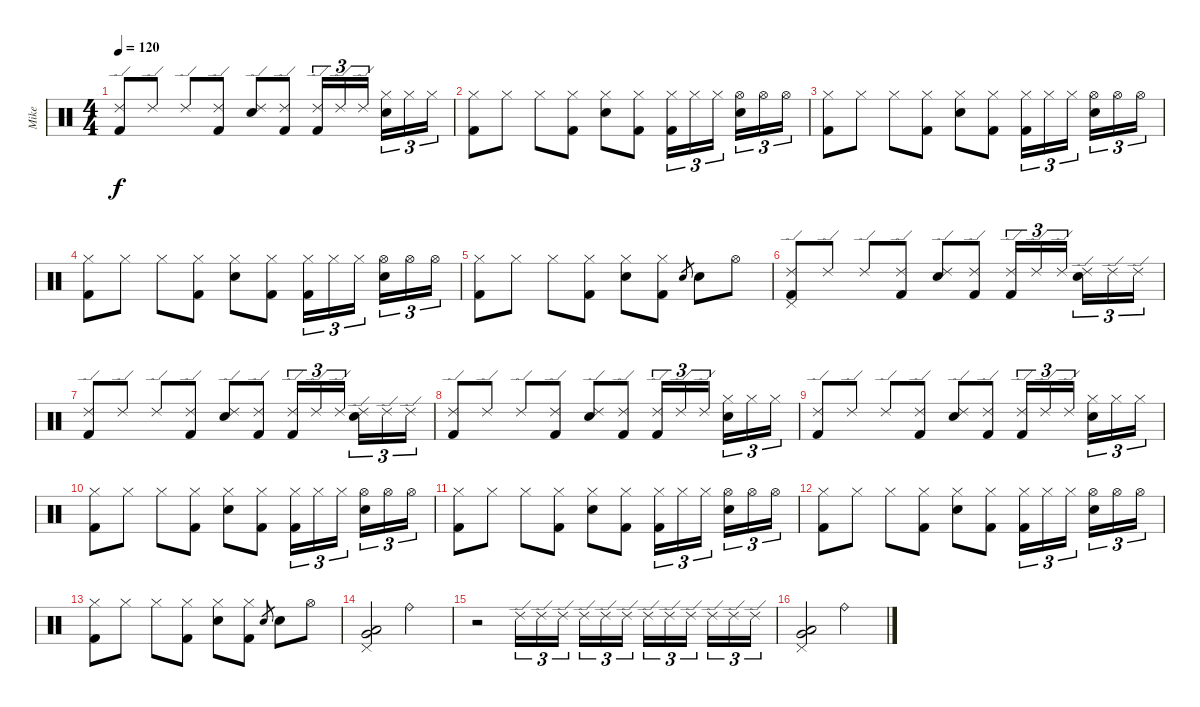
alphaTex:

\track ("Mike" "Mike") {instrument percussion}
\staff {score}
\articulation defaults
\ts (4 4)
\tempo 120
\clef neutral
\ks c
("Ride (edge) 2" "Kick (hit) 2").8{dy f} "Ride (edge) 2".8 "Ride (edge) 2".8 ("Ride (edge) 2" "Kick (hit) 2").8 ("Ride (edge) 2" "Electric Snare (hit)").8 ("Ride (edge) 2" "Kick (hit) 2").8 ("Ride (edge) 2" "Kick (hit) 2").16{tu (3 2)} "Ride (edge) 2".16{tu (3 2)} "Ride (edge) 2".16{tu (3 2) beam splitsecondary} ("Hi-Hat (closed)" "Electric Snare (hit)").16{tu (3 2)} "Hi-Hat (closed)".16{tu (3 2)} "Hi-Hat (closed)".16{tu (3 2)} |
("Hi-Hat (closed)" "Kick (hit) 2").8 "Hi-Hat (closed)".8 "Hi-Hat (closed)".8 ("Hi-Hat (closed)" "Kick (hit) 2").8 ("Hi-Hat (closed)" "Electric Snare (hit)").8 ("Hi-Hat (closed)" "Kick (hit) 2").8 ("Hi-Hat (closed)" "Kick (hit) 2").16{tu (3 2)} "Hi-Hat (closed)".16{tu (3 2)} "Hi-Hat (closed)".16{tu (3 2) beam splitsecondary} ("Hi-Hat (open)" "Electric Snare (hit)").16{tu (3 2)} "Hi-Hat (open)".16{tu (3 2)} "Hi-Hat (open)".16{tu (3 2)} |
("Hi-Hat (closed)" "Kick (hit) 2").8 "Hi-Hat (closed)".8 "Hi-Hat (closed)".8 ("Hi-Hat (closed)" "Kick (hit) 2").8 ("Hi-Hat (closed)" "Electric Snare (hit)").8 ("Hi-Hat (closed)" "Kick (hit) 2").8 ("Hi-Hat (closed)" "Kick (hit) 2").16{tu (3 2)} "Hi-Hat (closed)".16{tu (3 2)} "Hi-Hat (closed)".16{tu (3 2) beam splitsecondary} ("Hi-Hat (open)" "Electric Snare (hit)").16{tu (3 2)} "Hi-Hat (open)".16{tu (3 2)} "Hi-Hat (open)".16{tu (3 2)} |
("Hi-Hat (closed)" "Kick (hit) 2").8 "Hi-Hat (closed)".8 "Hi-Hat (closed)".8 ("Hi-Hat (closed)" "Kick (hit) 2").8 ("Hi-Hat (closed)" "Electric Snare (hit)").8 ("Hi-Hat (closed)" "Kick (hit) 2").8 ("Hi-Hat (closed)" "Kick (hit) 2").16{tu (3 2)} "Hi-Hat (closed)".16{tu (3 2)} "Hi-Hat (closed)".16{tu (3 2) beam splitsecondary} ("Hi-Hat (open)" "Electric Snare (hit)").16{tu (3 2)} "Hi-Hat (open)".16{tu (3 2)} "Hi-Hat (open)".16{tu (3 2)} |
("Hi-Hat (closed)" "Kick (hit) 2").8 "Hi-Hat (closed)".8 "Hi-Hat (closed)".8 ("Hi-Hat (closed)" "Kick (hit) 2").8 ("Hi-Hat (closed)" "Electric Snare (hit)").8 ("Hi-Hat (closed)" "Kick (hit) 2").8 "Electric Snare (hit)".8{gr} "Electric Snare (hit)".8 "Hi-Hat (open)".8 |
("Ride (edge) 2" "Pedal Hi-Hat (hit)" "Kick (hit) 2").8 "Ride (edge) 2".8 "Ride (edge) 2".8 ("Ride (edge) 2" "Kick (hit) 2").8 ("Ride (edge) 2" "Electric Snare (hit)").8 ("Ride (edge) 2" "Kick (hit) 2").8 ("Ride (edge) 2" "Kick (hit) 2").16{tu (3 2)} "Ride (edge) 2".16{tu (3 2)} "Ride (edge) 2".16{tu (3 2) beam splitsecondary} ("Ride (edge) 2" "Electric Snare (hit)").16{tu (3 2)} "Ride (edge) 2".16{tu (3 2)} "Ride (edge) 2".16{tu (3 2)} |
("Ride (edge) 2" "Kick (hit) 2").8 "Ride (edge) 2".8 "Ride (edge) 2".8 ("Ride (edge) 2" "Kick (hit) 2").8 ("Ride (edge) 2" "Electric Snare (hit)").8 ("Ride (edge) 2" "Kick (hit) 2").8 ("Ride (edge) 2" "Kick (hit) 2").16{tu (3 2)} "Ride (edge) 2".16{tu (3 2)} "Ride (edge) 2".16{tu (3 2) beam splitsecondary} ("Ride (edge) 2" "Electric Snare (hit)").16{tu (3 2)} "Ride (edge) 2".16{tu (3 2)} "Ride (edge) 2".16{tu (3 2)} |
("Ride (edge) 2" "Kick (hit) 2").8 "Ride (edge) 2".8 "Ride (edge) 2".8 ("Ride (edge) 2" "Kick (hit) 2").8 ("Ride (edge) 2" "Electric Snare (hit)").8 ("Ride (edge) 2" "Kick (hit) 2").8 ("Ride (edge) 2" "Kick (hit) 2").16{tu (3 2)} "Ride (edge) 2".16{tu (3 2)} "Ride (edge) 2".16{tu (3 2) beam splitsecondary} ("Hi-Hat (closed)" "Electric Snare (hit)").16{tu (3 2)} "Hi-Hat (closed)".16{tu (3 2)} "Hi-Hat (closed)".16{tu (3 2)} |
("Ride (edge) 2" "Kick (hit) 2").8 "Ride (edge) 2".8 "Ride (edge) 2".8 ("Ride (edge) 2" "Kick (hit) 2").8 ("Ride (edge) 2" "Electric Snare (hit)").8 ("Ride (edge) 2" "Kick (hit) 2").8 ("Ride (edge) 2" "Kick (hit) 2").16{tu (3 2)} "Ride (edge) 2".16{tu (3 2)} "Ride (edge) 2".16{tu (3 2) beam splitsecondary} ("Hi-Hat (closed)" "Electric Snare (hit)").16{tu (3 2)} "Hi-Hat (closed)".16{tu (3 2)} "Hi-Hat (closed)".16{tu (3 2)} |
("Hi-Hat (closed)" "Kick (hit) 2").8 "Hi-Hat (closed)".8 "Hi-Hat (closed)".8 ("Hi-Hat (closed)" "Kick (hit) 2").8 ("Hi-Hat (closed)" "Electric Snare (hit)").8 ("Hi-Hat (closed)" "Kick (hit) 2").8 ("Hi-Hat (closed)" "Kick (hit) 2").16{tu (3 2)} "Hi-Hat (closed)".16{tu (3 2)} "Hi-Hat (closed)".16{tu (3 2) beam splitsecondary} ("Hi-Hat (open)" "Electric Snare (hit)").16{tu (3 2)} "Hi-Hat (open)".16{tu (3 2)} "Hi-Hat (open)".16{tu (3 2)} |
("Hi-Hat (closed)" "Kick (hit) 2").8 "Hi-Hat (closed)".8 "Hi-Hat (closed)".8 ("Hi-Hat (closed)" "Kick (hit) 2").8 ("Hi-Hat (closed)" "Electric Snare (hit)").8 ("Hi-Hat (closed)" "Kick (hit) 2").8 ("Hi-Hat (closed)" "Kick (hit) 2").16{tu (3 2)} "Hi-Hat (closed)".16{tu (3 2)} "Hi-Hat (closed)".16{tu (3 2) beam splitsecondary} ("Hi-Hat (open)" "Electric Snare (hit)").16{tu (3 2)} "Hi-Hat (open)".16{tu (3 2)} "Hi-Hat (open)".16{tu (3 2)} |
("Hi-Hat (closed)" "Kick (hit) 2").8 "Hi-Hat (closed)".8 "Hi-Hat (closed)".8 ("Hi-Hat (closed)" "Kick (hit) 2").8 ("Hi-Hat (closed)" "Electric Snare (hit)").8 ("Hi-Hat (closed)" "Kick (hit) 2").8 ("Hi-Hat (closed)" "Kick (hit) 2").16{tu (3 2)} "Hi-Hat (closed)".16{tu (3 2)} "Hi-Hat (closed)".16{tu (3 2) beam splitsecondary} ("Hi-Hat (open)" "Electric Snare (hit)").16{tu (3 2)} "Hi-Hat (open)".16{tu (3 2)} "Hi-Hat (open)".16{tu (3 2)} |
("Hi-Hat (closed)" "Kick (hit) 2").8 "Hi-Hat (closed)".8 "Hi-Hat (closed)".8 ("Hi-Hat (closed)" "Kick (hit) 2").8 ("Hi-Hat (closed)" "Electric Snare (hit)").8 ("Hi-Hat (closed)" "Kick (hit) 2").8 "Electric Snare (hit)".8{gr} "Electric Snare (hit)".8 "Hi-Hat (open)".8 |
("Pedal Hi-Hat (hit)" "Low Floor Tom (hit)" "Very Low Tom (hit)").2 "Ride (bell)".2 |
r.2 "Ride (edge) 2".16{tu (3 2)} "Ride (edge) 2".16{tu (3 2)} "Ride (edge) 2".16{tu (3 2) beam splitsecondary} "Ride (edge) 2".16{tu (3 2)} "Ride (edge) 2".16{tu (3 2)} "Ride (edge) 2".16{tu (3 2)} "Ride (edge) 2".16{tu (3 2)} "Ride (edge) 2".16{tu (3 2)} "Ride (edge) 2".16{tu (3 2) beam splitsecondary} "Ride (edge) 2".16{tu (3 2)} "Ride (edge) 2".16{tu (3 2)} "Ride (edge) 2".16{tu (3 2)} |
("Pedal Hi-Hat (hit)" "Low Floor Tom (hit)" "Very Low Tom (hit)").2 "Ride (bell)".2
